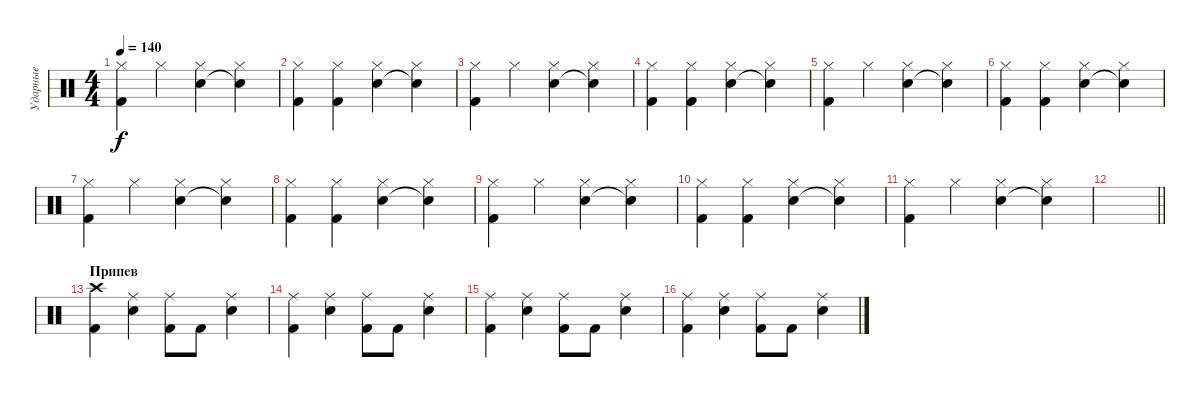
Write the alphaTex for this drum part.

\track ("Ударные" "Ударные") {instrument percussion}
\staff {score}
\articulation defaults
\ts (4 4)
\tempo 140
\clef neutral
\ks c
("Hi-Hat (closed)" "Kick (hit) 2").4{dy f} "Hi-Hat (closed)".4 ("Hi-Hat (closed)" "Electric Snare (hit)").4 ("Hi-Hat (closed)" "Snare (hit)"{t}).4 |
("Hi-Hat (closed)" "Kick (hit) 2").4 ("Hi-Hat (closed)" "Kick (hit) 2").4 ("Hi-Hat (closed)" "Electric Snare (hit)").4 ("Hi-Hat (closed)" "Snare (hit)"{t}).4 |
("Hi-Hat (closed)" "Kick (hit) 2").4 "Hi-Hat (closed)".4 ("Hi-Hat (closed)" "Electric Snare (hit)").4 ("Hi-Hat (closed)" "Snare (hit)"{t}).4 |
("Hi-Hat (closed)" "Kick (hit) 2").4 ("Hi-Hat (closed)" "Kick (hit) 2").4 ("Hi-Hat (closed)" "Electric Snare (hit)").4 ("Hi-Hat (closed)" "Snare (hit)"{t}).4 |
("Hi-Hat (closed)" "Kick (hit) 2").4 "Hi-Hat (closed)".4 ("Hi-Hat (closed)" "Electric Snare (hit)").4 ("Hi-Hat (closed)" "Snare (hit)"{t}).4 |
("Hi-Hat (closed)" "Kick (hit) 2").4 ("Hi-Hat (closed)" "Kick (hit) 2").4 ("Hi-Hat (closed)" "Electric Snare (hit)").4 ("Hi-Hat (closed)" "Snare (hit)"{t}).4 |
("Hi-Hat (closed)" "Kick (hit) 2").4 "Hi-Hat (closed)".4 ("Hi-Hat (closed)" "Electric Snare (hit)").4 ("Hi-Hat (closed)" "Snare (hit)"{t}).4 |
("Hi-Hat (closed)" "Kick (hit) 2").4 ("Hi-Hat (closed)" "Kick (hit) 2").4 ("Hi-Hat (closed)" "Electric Snare (hit)").4 ("Hi-Hat (closed)" "Snare (hit)"{t}).4 |
("Hi-Hat (closed)" "Kick (hit) 2").4 "Hi-Hat (closed)".4 ("Hi-Hat (closed)" "Electric Snare (hit)").4 ("Hi-Hat (closed)" "Snare (hit)"{t}).4 |
("Hi-Hat (closed)" "Kick (hit) 2").4 ("Hi-Hat (closed)" "Kick (hit) 2").4 ("Hi-Hat (closed)" "Electric Snare (hit)").4 ("Hi-Hat (closed)" "Snare (hit)"{t}).4 |
("Hi-Hat (closed)" "Kick (hit) 2").4 "Hi-Hat (closed)".4 ("Hi-Hat (closed)" "Electric Snare (hit)").4 ("Hi-Hat (closed)" "Snare (hit)"{t}).4 |
\barLineRight lightlight
|
\section ("" "Припев")
("Crash high (hit)" "Kick (hit) 2").4 ("Ride (middle)" "Electric Snare (hit)").4 ("Ride (middle)" "Kick (hit) 2").8 "Kick (hit) 2".8 ("Ride (middle)" "Electric Snare (hit)").4 |
("Ride (middle)" "Kick (hit) 2").4 ("Ride (middle)" "Electric Snare (hit)").4 ("Ride (middle)" "Kick (hit) 2").8 "Kick (hit) 2".8 ("Ride (middle)" "Electric Snare (hit)").4 |
("Ride (middle)" "Kick (hit) 2").4 ("Ride (middle)" "Electric Snare (hit)").4 ("Ride (middle)" "Kick (hit) 2").8 "Kick (hit) 2".8 ("Ride (middle)" "Electric Snare (hit)").4 |
("Ride (middle)" "Kick (hit) 2").4 ("Ride (middle)" "Electric Snare (hit)").4 ("Ride (middle)" "Kick (hit) 2").8 "Kick (hit) 2".8 ("Ride (middle)" "Electric Snare (hit)").4
